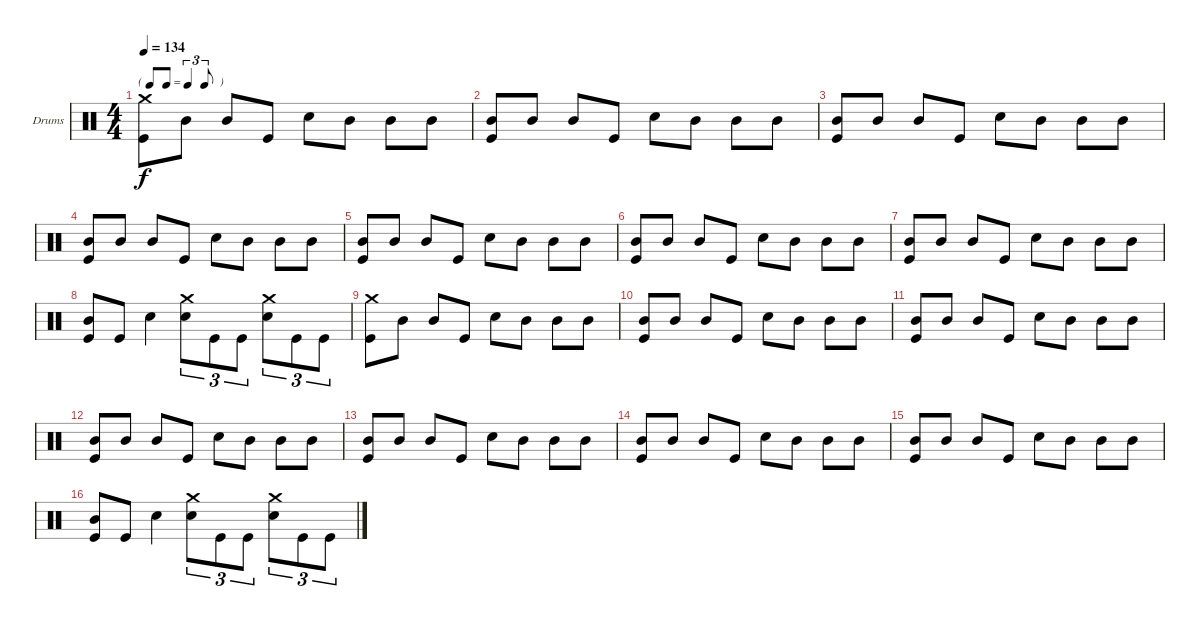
\defaultSystemsLayout 4
\bracketExtendMode groupsimilarinstruments
\firstSystemTrackNameOrientation horizontal
\otherSystemsTrackNameOrientation horizontal
\track ("Drumkit" "Drums") {instrument percussion}
\staff {score}
\articulation defaults
\ts (4 4)
\tf triplet8th
\tempo 134
\clef neutral
\ks c
("Kick (hit)" "Crash medium (hit)").8{dy f} "Mid Tom (hit)".8 "Mid Tom (hit)".8 "Kick (hit)".8 "Snare (hit) 2".8 "Mid Tom (hit)".8 "Mid Tom (hit)".8 "Mid Tom (hit)".8 |
("Kick (hit)" "Mid Tom (hit)").8 "Mid Tom (hit)".8 "Mid Tom (hit)".8 "Kick (hit)".8 "Snare (hit) 2".8 "Mid Tom (hit)".8 "Mid Tom (hit)".8 "Mid Tom (hit)".8 |
("Kick (hit)" "Mid Tom (hit)").8 "Mid Tom (hit)".8 "Mid Tom (hit)".8 "Kick (hit)".8 "Snare (hit) 2".8 "Mid Tom (hit)".8 "Mid Tom (hit)".8 "Mid Tom (hit)".8 |
("Kick (hit)" "Mid Tom (hit)").8 "Mid Tom (hit)".8 "Mid Tom (hit)".8 "Kick (hit)".8 "Snare (hit) 2".8 "Mid Tom (hit)".8 "Mid Tom (hit)".8 "Mid Tom (hit)".8 |
("Kick (hit)" "Mid Tom (hit)").8 "Mid Tom (hit)".8 "Mid Tom (hit)".8 "Kick (hit)".8 "Snare (hit) 2".8 "Mid Tom (hit)".8 "Mid Tom (hit)".8 "Mid Tom (hit)".8 |
("Kick (hit)" "Mid Tom (hit)").8 "Mid Tom (hit)".8 "Mid Tom (hit)".8 "Kick (hit)".8 "Snare (hit) 2".8 "Mid Tom (hit)".8 "Mid Tom (hit)".8 "Mid Tom (hit)".8 |
("Kick (hit)" "Mid Tom (hit)").8 "Mid Tom (hit)".8 "Mid Tom (hit)".8 "Kick (hit)".8 "Snare (hit) 2".8 "Mid Tom (hit)".8 "Mid Tom (hit)".8 "Mid Tom (hit)".8 |
("Kick (hit)" "Mid Tom (hit)").8 "Kick (hit)".8 "Snare (hit) 2".4 ("Snare (hit) 2" "Crash medium (hit)").8{tu (3 2)} "Kick (hit)".8{tu (3 2)} "Kick (hit)".8{tu (3 2)} ("Snare (hit) 2" "Crash medium (hit)").8{tu (3 2)} "Kick (hit)".8{tu (3 2)} "Kick (hit)".8{tu (3 2)} |
("Kick (hit)" "Crash medium (hit)").8 "Mid Tom (hit)".8 "Mid Tom (hit)".8 "Kick (hit)".8 "Snare (hit) 2".8 "Mid Tom (hit)".8 "Mid Tom (hit)".8 "Mid Tom (hit)".8 |
("Kick (hit)" "Mid Tom (hit)").8 "Mid Tom (hit)".8 "Mid Tom (hit)".8 "Kick (hit)".8 "Snare (hit) 2".8 "Mid Tom (hit)".8 "Mid Tom (hit)".8 "Mid Tom (hit)".8 |
("Kick (hit)" "Mid Tom (hit)").8 "Mid Tom (hit)".8 "Mid Tom (hit)".8 "Kick (hit)".8 "Snare (hit) 2".8 "Mid Tom (hit)".8 "Mid Tom (hit)".8 "Mid Tom (hit)".8 |
("Kick (hit)" "Mid Tom (hit)").8 "Mid Tom (hit)".8 "Mid Tom (hit)".8 "Kick (hit)".8 "Snare (hit) 2".8 "Mid Tom (hit)".8 "Mid Tom (hit)".8 "Mid Tom (hit)".8 |
("Kick (hit)" "Mid Tom (hit)").8 "Mid Tom (hit)".8 "Mid Tom (hit)".8 "Kick (hit)".8 "Snare (hit) 2".8 "Mid Tom (hit)".8 "Mid Tom (hit)".8 "Mid Tom (hit)".8 |
("Kick (hit)" "Mid Tom (hit)").8 "Mid Tom (hit)".8 "Mid Tom (hit)".8 "Kick (hit)".8 "Snare (hit) 2".8 "Mid Tom (hit)".8 "Mid Tom (hit)".8 "Mid Tom (hit)".8 |
("Kick (hit)" "Mid Tom (hit)").8 "Mid Tom (hit)".8 "Mid Tom (hit)".8 "Kick (hit)".8 "Snare (hit) 2".8 "Mid Tom (hit)".8 "Mid Tom (hit)".8 "Mid Tom (hit)".8 |
("Kick (hit)" "Mid Tom (hit)").8 "Kick (hit)".8 "Snare (hit) 2".4 ("Snare (hit) 2" "Crash medium (hit)").8{tu (3 2)} "Kick (hit)".8{tu (3 2)} "Kick (hit)".8{tu (3 2)} ("Snare (hit) 2" "Crash medium (hit)").8{tu (3 2)} "Kick (hit)".8{tu (3 2)} "Kick (hit)".8{tu (3 2)}
